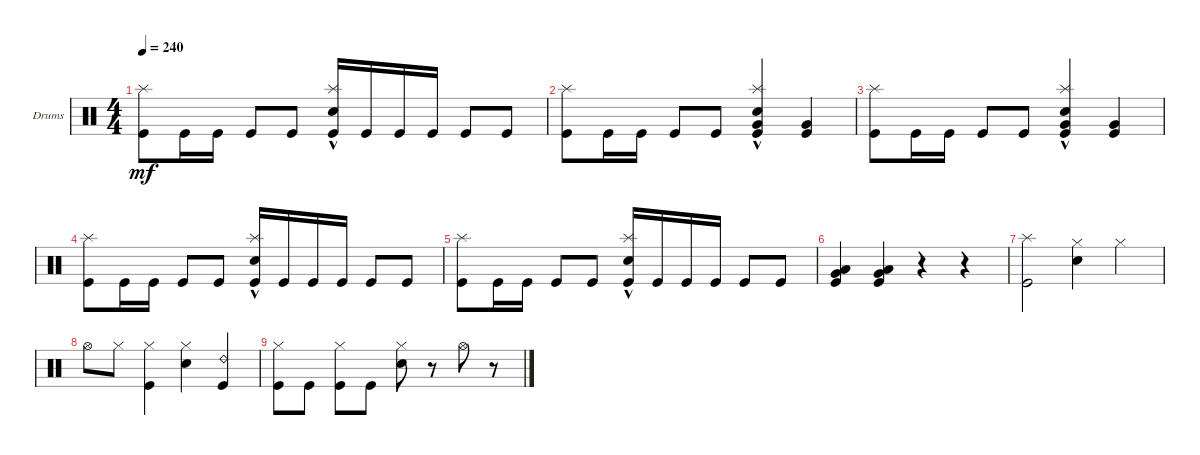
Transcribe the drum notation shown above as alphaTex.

\defaultSystemsLayout 4
\bracketExtendMode groupsimilarinstruments
\firstSystemTrackNameOrientation horizontal
\otherSystemsTrackNameOrientation horizontal
\track ("Drumkit" "Drums") {mute instrument percussion}
\staff {score}
\articulation defaults
\ts (4 4)
\tempo 240
\clef neutral
\ks c
("Kick (hit)" "Splash (hit)").8{dy mf} "Kick (hit)".16 "Kick (hit)".16 "Kick (hit)".8 "Kick (hit)".8 ("Kick (hit)" "Splash (hit)" "Snare (hit) 2"{hac}).16 "Kick (hit)".16 "Kick (hit)".16 "Kick (hit)".16 "Kick (hit)".8 "Kick (hit)".8 |
("Kick (hit)" "Splash (hit)").8 "Kick (hit)".16 "Kick (hit)".16 "Kick (hit)".8 "Kick (hit)".8 ("Kick (hit)" "Very Low Tom (hit)" "Splash (hit)" "Snare (hit) 2"{hac}).4 ("Kick (hit)" "Very Low Tom (hit)").4 |
("Kick (hit)" "Splash (hit)").8 "Kick (hit)".16 "Kick (hit)".16 "Kick (hit)".8 "Kick (hit)".8 ("Kick (hit)" "Very Low Tom (hit)" "Splash (hit)" "Snare (hit) 2"{hac}).4 ("Kick (hit)" "Very Low Tom (hit)").4 |
("Kick (hit)" "Splash (hit)").8 "Kick (hit)".16 "Kick (hit)".16 "Kick (hit)".8 "Kick (hit)".8 ("Kick (hit)" "Splash (hit)" "Snare (hit) 2"{hac}).16 "Kick (hit)".16 "Kick (hit)".16 "Kick (hit)".16 "Kick (hit)".8 "Kick (hit)".8 |
("Kick (hit)" "Splash (hit)").8 "Kick (hit)".16 "Kick (hit)".16 "Kick (hit)".8 "Kick (hit)".8 ("Kick (hit)" "Splash (hit)" "Snare (hit) 2"{hac}).16 "Kick (hit)".16 "Kick (hit)".16 "Kick (hit)".16 "Kick (hit)".8 "Kick (hit)".8 |
("Kick (hit)" "Very Low Tom (hit)" "Low Tom (hit)").4 ("Low Tom (hit)" "Very Low Tom (hit)" "Kick (hit)").4 r.4 r.4 |
("Splash (hit)" "Kick (hit)").2 ("Hi-Hat (closed)" "Snare (hit) 2").4 "Hi-Hat (closed)".4 |
"Hi-Hat (open)".8 "Hi-Hat (closed)".8 ("Hi-Hat (closed)" "Kick (hit)").4 ("Snare (hit) 2" "Hi-Hat (closed)").4 ("Ride (bell) 2" "Kick (hit)").4 |
("Kick (hit)" "Hi-Hat (closed)").8 "Kick (hit)".8 ("Kick (hit)" "Hi-Hat (closed)").8 "Kick (hit)".8 ("Hi-Hat (closed)" "Snare (hit) 2").8 r.8 "Hi-Hat (open)".8 r.8
